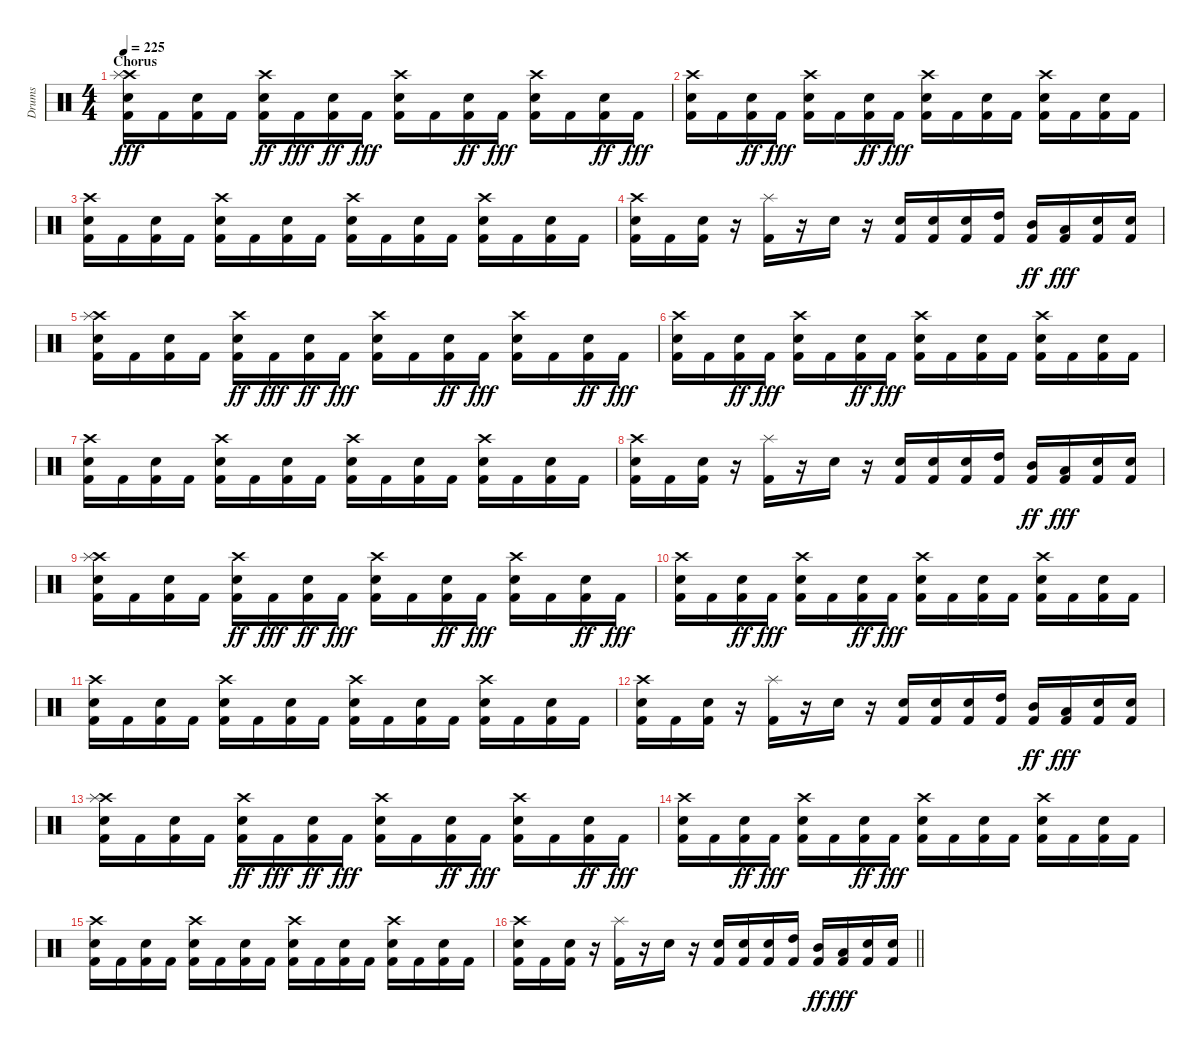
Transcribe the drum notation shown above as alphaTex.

\track ("Drums" "Drums") {instrument percussion}
\staff {score}
\articulation defaults
\ts (4 4)
\section ("" "Chorus")
\tempo 225
\clef neutral
\ks c
("Kick (hit) 2" "Snare (hit) 2" "Crash high (hit)" "Splash (hit)").16{dy fff} "Kick (hit) 2".16 ("Snare (hit) 2" "Kick (hit) 2").16 "Kick (hit) 2".16 ("Crash high (hit)" "Kick (hit) 2" "Snare (hit) 2").16{dy ff} "Kick (hit) 2".16{dy fff} ("Kick (hit) 2" "Snare (hit) 2").16{dy ff} "Kick (hit) 2".16{dy fff} ("Kick (hit) 2" "Snare (hit) 2" "Crash high (hit)").16 "Kick (hit) 2".16 ("Kick (hit) 2" "Snare (hit) 2").16{dy ff} "Kick (hit) 2".16{dy fff} ("Kick (hit) 2" "Snare (hit) 2" "Crash high (hit)").16 "Kick (hit) 2".16 ("Kick (hit) 2" "Snare (hit) 2").16{dy ff} "Kick (hit) 2".16{dy fff} |
("Kick (hit) 2" "Snare (hit) 2" "Crash high (hit)").16 "Kick (hit) 2".16 ("Kick (hit) 2" "Snare (hit) 2").16{dy ff} "Kick (hit) 2".16{dy fff} ("Kick (hit) 2" "Snare (hit) 2" "Crash high (hit)").16 "Kick (hit) 2".16 ("Kick (hit) 2" "Snare (hit) 2").16{dy ff} "Kick (hit) 2".16{dy fff} ("Kick (hit) 2" "Snare (hit) 2" "Crash high (hit)").16 "Kick (hit) 2".16 ("Snare (hit) 2" "Kick (hit) 2").16 "Kick (hit) 2".16 ("Crash high (hit)" "Kick (hit) 2" "Snare (hit) 2").16 "Kick (hit) 2".16 ("Snare (hit) 2" "Kick (hit) 2").16 "Kick (hit) 2".16 |
("Kick (hit) 2" "Snare (hit) 2" "Crash high (hit)").16 "Kick (hit) 2".16 ("Kick (hit) 2" "Snare (hit) 2").16 "Kick (hit) 2".16 ("Kick (hit) 2" "Snare (hit) 2" "Crash high (hit)").16 "Kick (hit) 2".16 ("Kick (hit) 2" "Snare (hit) 2").16 "Kick (hit) 2".16 ("Kick (hit) 2" "Snare (hit) 2" "Crash high (hit)").16 "Kick (hit) 2".16 ("Kick (hit) 2" "Snare (hit) 2").16 "Kick (hit) 2".16 ("Kick (hit) 2" "Snare (hit) 2" "Crash high (hit)").16 "Kick (hit) 2".16 ("Kick (hit) 2" "Snare (hit) 2").16 "Kick (hit) 2".16 |
("Kick (hit) 2" "Snare (hit) 2" "Crash high (hit)").16 "Kick (hit) 2".16 ("Kick (hit) 2" "Snare (hit) 2").16 r.16 ("Kick (hit) 2" "Splash (hit)").16 r.16 "Snare (hit) 2".16 r.16 ("Kick (hit) 2" "Snare (hit) 2").16 ("Snare (hit) 2" "Kick (hit) 2").16 ("Snare (hit) 2" "Kick (hit) 2").16 ("High Tom (hit)" "Kick (hit) 2").16 ("Mid Tom (hit)" "Kick (hit) 2").16{dy ff} ("Low Tom (hit)" "Kick (hit) 2").16{dy fff} ("Kick (hit) 2" "Snare (hit) 2").16 ("Kick (hit) 2" "Snare (hit) 2").16 |
("Kick (hit) 2" "Snare (hit) 2" "Crash high (hit)" "Splash (hit)").16 "Kick (hit) 2".16 ("Snare (hit) 2" "Kick (hit) 2").16 "Kick (hit) 2".16 ("Crash high (hit)" "Kick (hit) 2" "Snare (hit) 2").16{dy ff} "Kick (hit) 2".16{dy fff} ("Kick (hit) 2" "Snare (hit) 2").16{dy ff} "Kick (hit) 2".16{dy fff} ("Kick (hit) 2" "Snare (hit) 2" "Crash high (hit)").16 "Kick (hit) 2".16 ("Kick (hit) 2" "Snare (hit) 2").16{dy ff} "Kick (hit) 2".16{dy fff} ("Kick (hit) 2" "Snare (hit) 2" "Crash high (hit)").16 "Kick (hit) 2".16 ("Kick (hit) 2" "Snare (hit) 2").16{dy ff} "Kick (hit) 2".16{dy fff} |
("Kick (hit) 2" "Snare (hit) 2" "Crash high (hit)").16 "Kick (hit) 2".16 ("Kick (hit) 2" "Snare (hit) 2").16{dy ff} "Kick (hit) 2".16{dy fff} ("Kick (hit) 2" "Snare (hit) 2" "Crash high (hit)").16 "Kick (hit) 2".16 ("Kick (hit) 2" "Snare (hit) 2").16{dy ff} "Kick (hit) 2".16{dy fff} ("Kick (hit) 2" "Snare (hit) 2" "Crash high (hit)").16 "Kick (hit) 2".16 ("Snare (hit) 2" "Kick (hit) 2").16 "Kick (hit) 2".16 ("Crash high (hit)" "Kick (hit) 2" "Snare (hit) 2").16 "Kick (hit) 2".16 ("Snare (hit) 2" "Kick (hit) 2").16 "Kick (hit) 2".16 |
("Kick (hit) 2" "Snare (hit) 2" "Crash high (hit)").16 "Kick (hit) 2".16 ("Kick (hit) 2" "Snare (hit) 2").16 "Kick (hit) 2".16 ("Kick (hit) 2" "Snare (hit) 2" "Crash high (hit)").16 "Kick (hit) 2".16 ("Kick (hit) 2" "Snare (hit) 2").16 "Kick (hit) 2".16 ("Kick (hit) 2" "Snare (hit) 2" "Crash high (hit)").16 "Kick (hit) 2".16 ("Kick (hit) 2" "Snare (hit) 2").16 "Kick (hit) 2".16 ("Kick (hit) 2" "Snare (hit) 2" "Crash high (hit)").16 "Kick (hit) 2".16 ("Kick (hit) 2" "Snare (hit) 2").16 "Kick (hit) 2".16 |
("Kick (hit) 2" "Snare (hit) 2" "Crash high (hit)").16 "Kick (hit) 2".16 ("Kick (hit) 2" "Snare (hit) 2").16 r.16 ("Kick (hit) 2" "Splash (hit)").16 r.16 "Snare (hit) 2".16 r.16 ("Kick (hit) 2" "Snare (hit) 2").16 ("Snare (hit) 2" "Kick (hit) 2").16 ("Snare (hit) 2" "Kick (hit) 2").16 ("High Tom (hit)" "Kick (hit) 2").16 ("Mid Tom (hit)" "Kick (hit) 2").16{dy ff} ("Low Tom (hit)" "Kick (hit) 2").16{dy fff} ("Kick (hit) 2" "Snare (hit) 2").16 ("Kick (hit) 2" "Snare (hit) 2").16 |
("Kick (hit) 2" "Snare (hit) 2" "Crash high (hit)" "Splash (hit)").16 "Kick (hit) 2".16 ("Snare (hit) 2" "Kick (hit) 2").16 "Kick (hit) 2".16 ("Crash high (hit)" "Kick (hit) 2" "Snare (hit) 2").16{dy ff} "Kick (hit) 2".16{dy fff} ("Kick (hit) 2" "Snare (hit) 2").16{dy ff} "Kick (hit) 2".16{dy fff} ("Kick (hit) 2" "Snare (hit) 2" "Crash high (hit)").16 "Kick (hit) 2".16 ("Kick (hit) 2" "Snare (hit) 2").16{dy ff} "Kick (hit) 2".16{dy fff} ("Kick (hit) 2" "Snare (hit) 2" "Crash high (hit)").16 "Kick (hit) 2".16 ("Kick (hit) 2" "Snare (hit) 2").16{dy ff} "Kick (hit) 2".16{dy fff} |
("Kick (hit) 2" "Snare (hit) 2" "Crash high (hit)").16 "Kick (hit) 2".16 ("Kick (hit) 2" "Snare (hit) 2").16{dy ff} "Kick (hit) 2".16{dy fff} ("Kick (hit) 2" "Snare (hit) 2" "Crash high (hit)").16 "Kick (hit) 2".16 ("Kick (hit) 2" "Snare (hit) 2").16{dy ff} "Kick (hit) 2".16{dy fff} ("Kick (hit) 2" "Snare (hit) 2" "Crash high (hit)").16 "Kick (hit) 2".16 ("Snare (hit) 2" "Kick (hit) 2").16 "Kick (hit) 2".16 ("Crash high (hit)" "Kick (hit) 2" "Snare (hit) 2").16 "Kick (hit) 2".16 ("Snare (hit) 2" "Kick (hit) 2").16 "Kick (hit) 2".16 |
("Kick (hit) 2" "Snare (hit) 2" "Crash high (hit)").16 "Kick (hit) 2".16 ("Kick (hit) 2" "Snare (hit) 2").16 "Kick (hit) 2".16 ("Kick (hit) 2" "Snare (hit) 2" "Crash high (hit)").16 "Kick (hit) 2".16 ("Kick (hit) 2" "Snare (hit) 2").16 "Kick (hit) 2".16 ("Kick (hit) 2" "Snare (hit) 2" "Crash high (hit)").16 "Kick (hit) 2".16 ("Kick (hit) 2" "Snare (hit) 2").16 "Kick (hit) 2".16 ("Kick (hit) 2" "Snare (hit) 2" "Crash high (hit)").16 "Kick (hit) 2".16 ("Kick (hit) 2" "Snare (hit) 2").16 "Kick (hit) 2".16 |
("Kick (hit) 2" "Snare (hit) 2" "Crash high (hit)").16 "Kick (hit) 2".16 ("Kick (hit) 2" "Snare (hit) 2").16 r.16 ("Kick (hit) 2" "Splash (hit)").16 r.16 "Snare (hit) 2".16 r.16 ("Kick (hit) 2" "Snare (hit) 2").16 ("Snare (hit) 2" "Kick (hit) 2").16 ("Snare (hit) 2" "Kick (hit) 2").16 ("High Tom (hit)" "Kick (hit) 2").16 ("Mid Tom (hit)" "Kick (hit) 2").16{dy ff} ("Low Tom (hit)" "Kick (hit) 2").16{dy fff} ("Kick (hit) 2" "Snare (hit) 2").16 ("Kick (hit) 2" "Snare (hit) 2").16 |
("Kick (hit) 2" "Snare (hit) 2" "Crash high (hit)" "Splash (hit)").16 "Kick (hit) 2".16 ("Snare (hit) 2" "Kick (hit) 2").16 "Kick (hit) 2".16 ("Crash high (hit)" "Kick (hit) 2" "Snare (hit) 2").16{dy ff} "Kick (hit) 2".16{dy fff} ("Kick (hit) 2" "Snare (hit) 2").16{dy ff} "Kick (hit) 2".16{dy fff} ("Kick (hit) 2" "Snare (hit) 2" "Crash high (hit)").16 "Kick (hit) 2".16 ("Kick (hit) 2" "Snare (hit) 2").16{dy ff} "Kick (hit) 2".16{dy fff} ("Kick (hit) 2" "Snare (hit) 2" "Crash high (hit)").16 "Kick (hit) 2".16 ("Kick (hit) 2" "Snare (hit) 2").16{dy ff} "Kick (hit) 2".16{dy fff} |
("Kick (hit) 2" "Snare (hit) 2" "Crash high (hit)").16 "Kick (hit) 2".16 ("Kick (hit) 2" "Snare (hit) 2").16{dy ff} "Kick (hit) 2".16{dy fff} ("Kick (hit) 2" "Snare (hit) 2" "Crash high (hit)").16 "Kick (hit) 2".16 ("Kick (hit) 2" "Snare (hit) 2").16{dy ff} "Kick (hit) 2".16{dy fff} ("Kick (hit) 2" "Snare (hit) 2" "Crash high (hit)").16 "Kick (hit) 2".16 ("Snare (hit) 2" "Kick (hit) 2").16 "Kick (hit) 2".16 ("Crash high (hit)" "Kick (hit) 2" "Snare (hit) 2").16 "Kick (hit) 2".16 ("Snare (hit) 2" "Kick (hit) 2").16 "Kick (hit) 2".16 |
("Kick (hit) 2" "Snare (hit) 2" "Crash high (hit)").16 "Kick (hit) 2".16 ("Kick (hit) 2" "Snare (hit) 2").16 "Kick (hit) 2".16 ("Kick (hit) 2" "Snare (hit) 2" "Crash high (hit)").16 "Kick (hit) 2".16 ("Kick (hit) 2" "Snare (hit) 2").16 "Kick (hit) 2".16 ("Kick (hit) 2" "Snare (hit) 2" "Crash high (hit)").16 "Kick (hit) 2".16 ("Kick (hit) 2" "Snare (hit) 2").16 "Kick (hit) 2".16 ("Kick (hit) 2" "Snare (hit) 2" "Crash high (hit)").16 "Kick (hit) 2".16 ("Kick (hit) 2" "Snare (hit) 2").16 "Kick (hit) 2".16 |
\barLineRight lightlight
("Kick (hit) 2" "Snare (hit) 2" "Crash high (hit)").16 "Kick (hit) 2".16 ("Kick (hit) 2" "Snare (hit) 2").16 r.16 ("Kick (hit) 2" "Splash (hit)").16 r.16 "Snare (hit) 2".16 r.16 ("Kick (hit) 2" "Snare (hit) 2").16 ("Snare (hit) 2" "Kick (hit) 2").16 ("Snare (hit) 2" "Kick (hit) 2").16 ("High Tom (hit)" "Kick (hit) 2").16 ("Mid Tom (hit)" "Kick (hit) 2").16{dy ff} ("Low Tom (hit)" "Kick (hit) 2").16{dy fff} ("Kick (hit) 2" "Snare (hit) 2").16 ("Kick (hit) 2" "Snare (hit) 2").16
